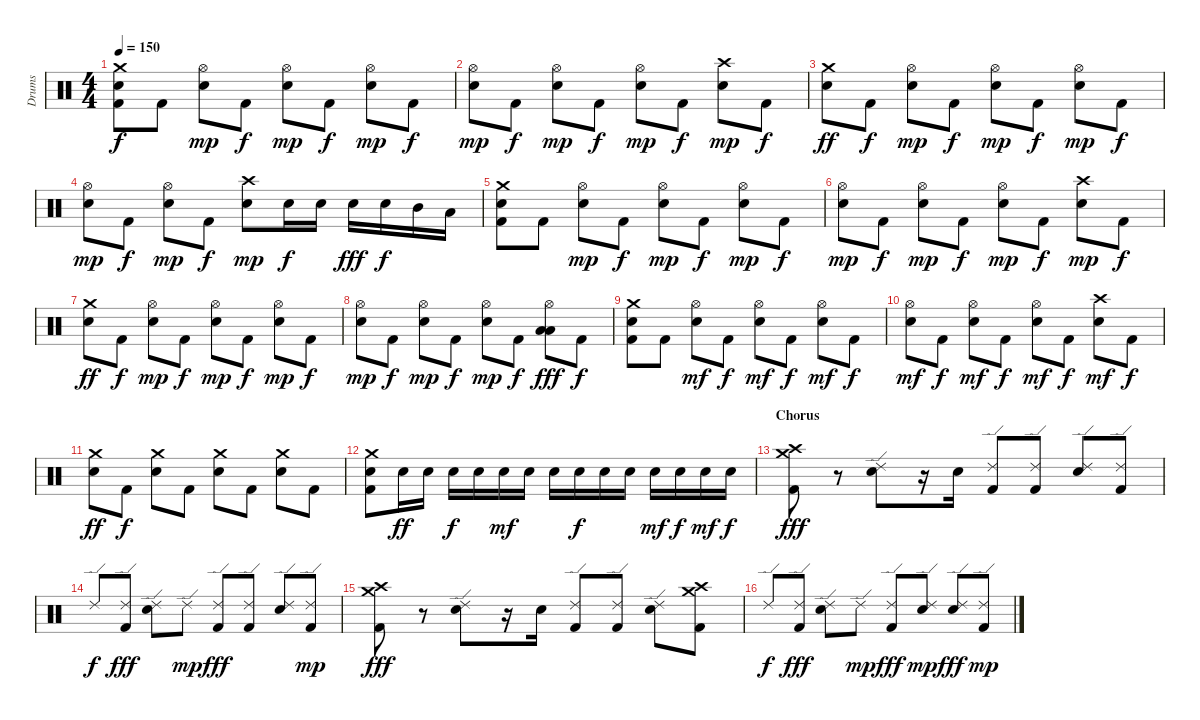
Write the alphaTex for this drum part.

\track ("Drums" "Drums") {instrument percussion}
\staff {score}
\articulation defaults
\ts (4 4)
\tempo 150
\clef neutral
\ks c
("Crash medium (hit)" "Electric Snare (hit)" "Kick (hit) 2").8{dy f} "Kick (hit) 2".8 ("Hi-Hat (open)" "Electric Snare (hit)").8{dy mp} "Kick (hit) 2".8{dy f} ("Hi-Hat (open)" "Electric Snare (hit)").8{dy mp} "Kick (hit) 2".8{dy f} ("Hi-Hat (open)" "Electric Snare (hit)").8{dy mp} "Kick (hit) 2".8{dy f} |
("Hi-Hat (open)" "Electric Snare (hit)").8{dy mp} "Kick (hit) 2".8{dy f} ("Hi-Hat (open)" "Electric Snare (hit)").8{dy mp} "Kick (hit) 2".8{dy f} ("Hi-Hat (open)" "Electric Snare (hit)").8{dy mp} "Kick (hit) 2".8{dy f} ("Crash high (hit)" "Electric Snare (hit)").8{dy mp} "Kick (hit) 2".8{dy f} |
("Crash medium (hit)" "Electric Snare (hit)").8{dy ff} "Kick (hit) 2".8{dy f} ("Hi-Hat (open)" "Electric Snare (hit)").8{dy mp} "Kick (hit) 2".8{dy f} ("Hi-Hat (open)" "Electric Snare (hit)").8{dy mp} "Kick (hit) 2".8{dy f} ("Hi-Hat (open)" "Electric Snare (hit)").8{dy mp} "Kick (hit) 2".8{dy f} |
("Hi-Hat (open)" "Electric Snare (hit)").8{dy mp} "Kick (hit) 2".8{dy f} ("Hi-Hat (open)" "Electric Snare (hit)").8{dy mp} "Kick (hit) 2".8{dy f} ("Crash high (hit)" "Electric Snare (hit)").8{dy mp} "Electric Snare (hit)".16{dy f} "Electric Snare (hit)".16 "Electric Snare (hit)".16{dy fff} "Electric Snare (hit)".16{dy f} "Mid Tom (hit)".16 "Low Tom (hit)".16 |
("Crash medium (hit)" "Electric Snare (hit)" "Kick (hit) 2").8 "Kick (hit) 2".8 ("Hi-Hat (open)" "Electric Snare (hit)").8{dy mp} "Kick (hit) 2".8{dy f} ("Hi-Hat (open)" "Electric Snare (hit)").8{dy mp} "Kick (hit) 2".8{dy f} ("Hi-Hat (open)" "Electric Snare (hit)").8{dy mp} "Kick (hit) 2".8{dy f} |
("Hi-Hat (open)" "Electric Snare (hit)").8{dy mp} "Kick (hit) 2".8{dy f} ("Hi-Hat (open)" "Electric Snare (hit)").8{dy mp} "Kick (hit) 2".8{dy f} ("Hi-Hat (open)" "Electric Snare (hit)").8{dy mp} "Kick (hit) 2".8{dy f} ("Crash high (hit)" "Electric Snare (hit)").8{dy mp} "Kick (hit) 2".8{dy f} |
("Crash medium (hit)" "Electric Snare (hit)").8{dy ff} "Kick (hit) 2".8{dy f} ("Hi-Hat (open)" "Electric Snare (hit)").8{dy mp} "Kick (hit) 2".8{dy f} ("Hi-Hat (open)" "Electric Snare (hit)").8{dy mp} "Kick (hit) 2".8{dy f} ("Hi-Hat (open)" "Electric Snare (hit)").8{dy mp} "Kick (hit) 2".8{dy f} |
("Hi-Hat (open)" "Electric Snare (hit)").8{dy mp} "Kick (hit) 2".8{dy f} ("Hi-Hat (open)" "Electric Snare (hit)").8{dy mp} "Kick (hit) 2".8{dy f} ("Hi-Hat (open)" "Electric Snare (hit)").8{dy mp} "Kick (hit) 2".8{dy f} ("Hi-Hat (open)" "Low Tom (hit)" "Low Tom (hit)").8{dy fff} "Kick (hit) 2".8{dy f} |
("Crash medium (hit)" "Electric Snare (hit)" "Kick (hit) 2").8 "Kick (hit) 2".8 ("Hi-Hat (open)" "Electric Snare (hit)").8{dy mf} "Kick (hit) 2".8{dy f} ("Hi-Hat (open)" "Electric Snare (hit)").8{dy mf} "Kick (hit) 2".8{dy f} ("Hi-Hat (open)" "Electric Snare (hit)").8{dy mf} "Kick (hit) 2".8{dy f} |
("Hi-Hat (open)" "Electric Snare (hit)").8{dy mf} "Kick (hit) 2".8{dy f} ("Hi-Hat (open)" "Electric Snare (hit)").8{dy mf} "Kick (hit) 2".8{dy f} ("Hi-Hat (open)" "Electric Snare (hit)").8{dy mf} "Kick (hit) 2".8{dy f} ("Crash high (hit)" "Electric Snare (hit)").8{dy mf} "Kick (hit) 2".8{dy f} |
("Crash medium (hit)" "Electric Snare (hit)").8{dy ff} "Kick (hit) 2".8{dy f} ("Crash medium (hit)" "Electric Snare (hit)").8 "Kick (hit) 2".8 ("Crash medium (hit)" "Electric Snare (hit)").8 "Kick (hit) 2".8 ("Crash medium (hit)" "Electric Snare (hit)").8 "Kick (hit) 2".8 |
("Crash medium (hit)" "Electric Snare (hit)" "Kick (hit) 2").8 "Electric Snare (hit)".16{dy ff} "Electric Snare (hit)".16 "Electric Snare (hit)".16{dy f} "Electric Snare (hit)".16 "Electric Snare (hit)".16{dy mf} "Electric Snare (hit)".16 "Electric Snare (hit)".16 "Electric Snare (hit)".16{dy f} "Electric Snare (hit)".16 "Electric Snare (hit)".16 "Electric Snare (hit)".16{dy mf} "Electric Snare (hit)".16{dy f} "Electric Snare (hit)".16{dy mf} "Electric Snare (hit)".16{dy f} |
\section ("" "Chorus")
("Crash high (hit)" "Crash medium (hit)" "Kick (hit) 2").8{dy fff} r.8 ("Ride (edge) 2" "Electric Snare (hit)").8 r.16 "Electric Snare (hit)".16 ("Ride (edge) 2" "Kick (hit) 2").8 ("Ride (edge) 2" "Kick (hit) 2").8 ("Ride (edge) 2" "Electric Snare (hit)").8 ("Ride (edge) 2" "Kick (hit) 2").8 |
"Ride (edge) 2".8{dy f} ("Ride (edge) 2" "Kick (hit) 2").8{dy fff} ("Ride (edge) 2" "Electric Snare (hit)").8 "Ride (edge) 2".8{dy mp} ("Ride (edge) 2" "Kick (hit) 2").8{dy fff} ("Ride (edge) 2" "Kick (hit) 2").8 ("Ride (edge) 2" "Electric Snare (hit)").8 ("Ride (edge) 2" "Kick (hit) 2").8{dy mp} |
("Crash medium (hit)" "Crash high (hit)" "Kick (hit) 2").8{dy fff} r.8 ("Ride (edge) 2" "Electric Snare (hit)").8 r.16 "Electric Snare (hit)".16 ("Ride (edge) 2" "Kick (hit) 2").8 ("Ride (edge) 2" "Kick (hit) 2").8 ("Ride (edge) 2" "Electric Snare (hit)").8 ("Crash medium (hit)" "Crash high (hit)" "Kick (hit) 2").8 |
"Ride (edge) 2".8{dy f} ("Ride (edge) 2" "Kick (hit) 2").8{dy fff} ("Ride (edge) 2" "Electric Snare (hit)").8 "Ride (edge) 2".8{dy mp} ("Ride (edge) 2" "Kick (hit) 2").8{dy fff} ("Ride (edge) 2" "Electric Snare (hit)").8{dy mp} ("Ride (edge) 2" "Electric Snare (hit)").8{dy fff} ("Ride (edge) 2" "Kick (hit) 2").8{dy mp}
